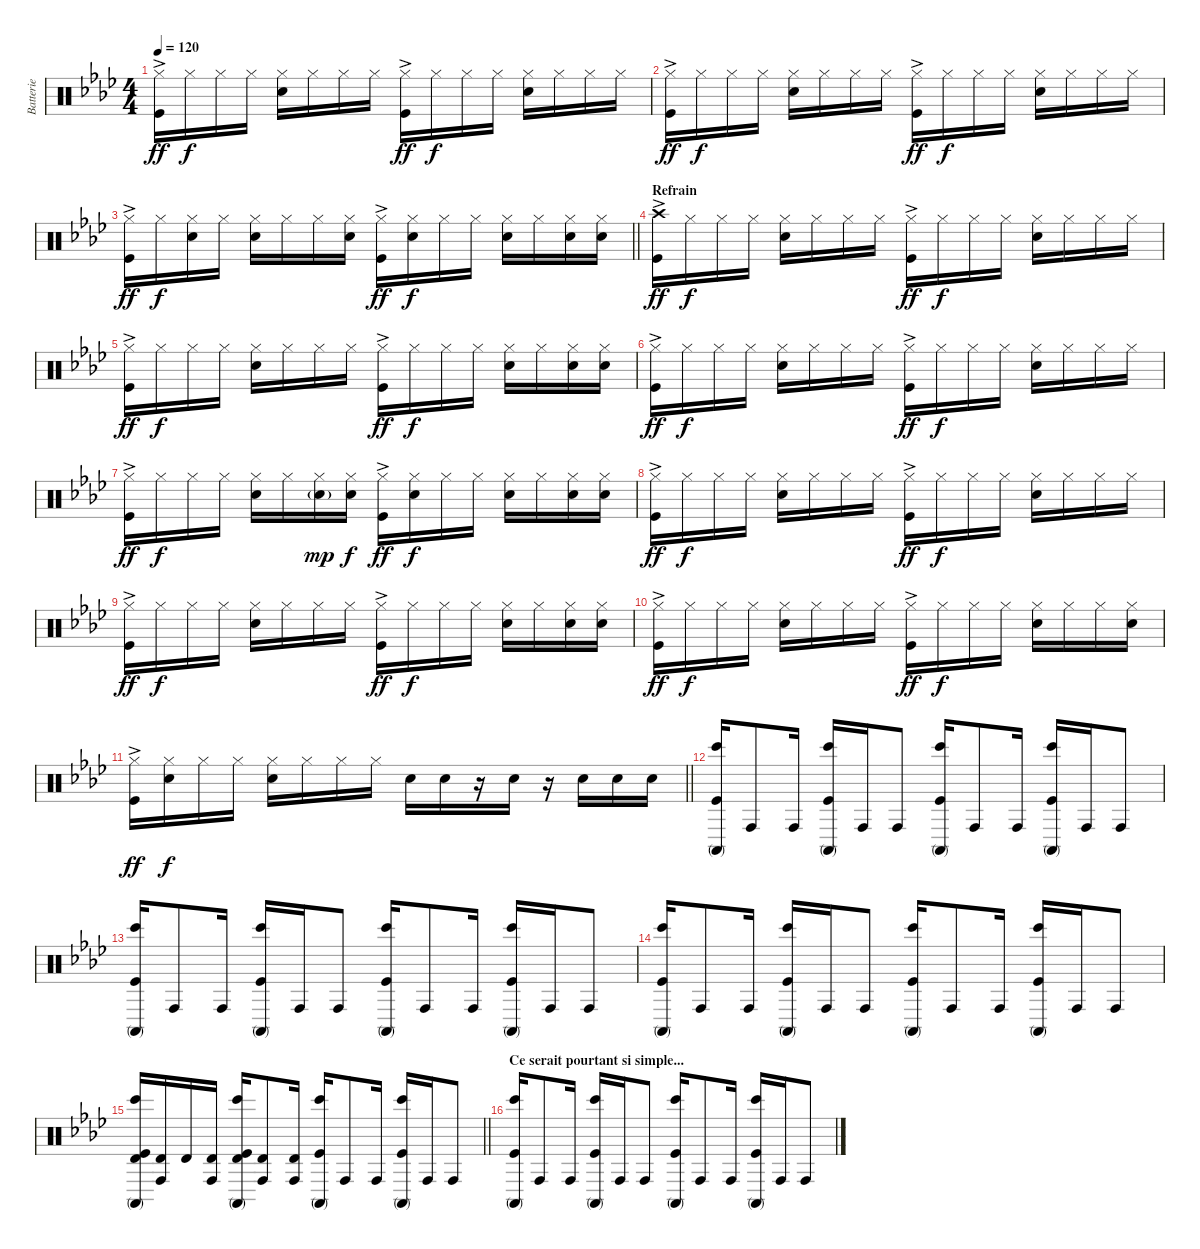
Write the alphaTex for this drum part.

\track ("Batterie" "Batterie") {instrument percussion}
\staff {score}
\articulation defaults
\ts (4 4)
\tempo 120
\clef neutral
\ks fminor
("Hi-Hat (closed)" "Kick (hit)"{ac}).16{dy ff} "Hi-Hat (closed)".16{dy f} "Hi-Hat (closed)".16 "Hi-Hat (closed)".16 ("Hi-Hat (closed)" "Snare (hit) 2").16 "Hi-Hat (closed)".16 "Hi-Hat (closed)".16 "Hi-Hat (closed)".16 ("Hi-Hat (closed)" "Kick (hit)"{ac}).16{dy ff} "Hi-Hat (closed)".16{dy f} "Hi-Hat (closed)".16 "Hi-Hat (closed)".16 ("Hi-Hat (closed)" "Snare (hit) 2").16 "Hi-Hat (closed)".16 "Hi-Hat (closed)".16 "Hi-Hat (closed)".16 |
("Hi-Hat (closed)" "Kick (hit)"{ac}).16{dy ff} "Hi-Hat (closed)".16{dy f} "Hi-Hat (closed)".16 "Hi-Hat (closed)".16 ("Hi-Hat (closed)" "Snare (hit) 2").16 "Hi-Hat (closed)".16 "Hi-Hat (closed)".16 "Hi-Hat (closed)".16 ("Hi-Hat (closed)" "Kick (hit)"{ac}).16{dy ff} "Hi-Hat (closed)".16{dy f} "Hi-Hat (closed)".16 "Hi-Hat (closed)".16 ("Hi-Hat (closed)" "Snare (hit) 2").16 "Hi-Hat (closed)".16 "Hi-Hat (closed)".16 "Hi-Hat (closed)".16 |
\barLineRight lightlight
("Hi-Hat (closed)" "Kick (hit)"{ac}).16{dy ff} "Hi-Hat (closed)".16{dy f} ("Hi-Hat (closed)" "Snare (hit) 2").16 "Hi-Hat (closed)".16 ("Hi-Hat (closed)" "Snare (hit) 2").16 "Hi-Hat (closed)".16 "Hi-Hat (closed)".16 ("Hi-Hat (closed)" "Snare (hit) 2").16 ("Hi-Hat (closed)" "Kick (hit)"{ac}).16{dy ff} ("Hi-Hat (closed)" "Snare (hit) 2").16{dy f} "Hi-Hat (closed)".16 "Hi-Hat (closed)".16 ("Hi-Hat (closed)" "Snare (hit) 2").16 "Hi-Hat (closed)".16 ("Hi-Hat (closed)" "Snare (hit) 2").16 ("Hi-Hat (closed)" "Snare (hit) 2").16 |
\section ("" "Refrain")
("Crash high (hit)" "Kick (hit)"{ac}).16{dy ff} "Hi-Hat (closed)".16{dy f} "Hi-Hat (closed)".16 "Hi-Hat (closed)".16 ("Hi-Hat (closed)" "Snare (hit) 2").16 "Hi-Hat (closed)".16 "Hi-Hat (closed)".16 "Hi-Hat (closed)".16 ("Hi-Hat (closed)" "Kick (hit)"{ac}).16{dy ff} "Hi-Hat (closed)".16{dy f} "Hi-Hat (closed)".16 "Hi-Hat (closed)".16 ("Hi-Hat (closed)" "Snare (hit) 2").16 "Hi-Hat (closed)".16 "Hi-Hat (closed)".16 "Hi-Hat (closed)".16 |
("Hi-Hat (closed)" "Kick (hit)"{ac}).16{dy ff} "Hi-Hat (closed)".16{dy f} "Hi-Hat (closed)".16 "Hi-Hat (closed)".16 ("Hi-Hat (closed)" "Snare (hit) 2").16 "Hi-Hat (closed)".16 "Hi-Hat (closed)".16 "Hi-Hat (closed)".16 ("Hi-Hat (closed)" "Kick (hit)"{ac}).16{dy ff} "Hi-Hat (closed)".16{dy f} "Hi-Hat (closed)".16 "Hi-Hat (closed)".16 ("Hi-Hat (closed)" "Snare (hit) 2").16 "Hi-Hat (closed)".16 ("Hi-Hat (closed)" "Snare (hit) 2").16 ("Hi-Hat (closed)" "Snare (hit) 2").16 |
("Hi-Hat (closed)" "Kick (hit)"{ac}).16{dy ff} "Hi-Hat (closed)".16{dy f} "Hi-Hat (closed)".16 "Hi-Hat (closed)".16 ("Hi-Hat (closed)" "Snare (hit) 2").16 "Hi-Hat (closed)".16 "Hi-Hat (closed)".16 "Hi-Hat (closed)".16 ("Hi-Hat (closed)" "Kick (hit)"{ac}).16{dy ff} "Hi-Hat (closed)".16{dy f} "Hi-Hat (closed)".16 "Hi-Hat (closed)".16 ("Hi-Hat (closed)" "Snare (hit) 2").16 "Hi-Hat (closed)".16 "Hi-Hat (closed)".16 "Hi-Hat (closed)".16 |
("Hi-Hat (closed)" "Kick (hit)"{ac}).16{dy ff} "Hi-Hat (closed)".16{dy f} "Hi-Hat (closed)".16 "Hi-Hat (closed)".16 ("Hi-Hat (closed)" "Snare (hit) 2").16 "Hi-Hat (closed)".16 ("Hi-Hat (closed)" "Snare (hit) 2"{g}).16{dy mp} ("Hi-Hat (closed)" "Snare (hit) 2").16{dy f} ("Hi-Hat (closed)" "Kick (hit)"{ac}).16{dy ff} ("Hi-Hat (closed)" "Snare (hit) 2").16{dy f} "Hi-Hat (closed)".16 "Hi-Hat (closed)".16 ("Hi-Hat (closed)" "Snare (hit) 2").16 "Hi-Hat (closed)".16 ("Hi-Hat (closed)" "Snare (hit) 2").16 ("Hi-Hat (closed)" "Snare (hit) 2").16 |
("Hi-Hat (closed)" "Kick (hit)"{ac}).16{dy ff} "Hi-Hat (closed)".16{dy f} "Hi-Hat (closed)".16 "Hi-Hat (closed)".16 ("Hi-Hat (closed)" "Snare (hit) 2").16 "Hi-Hat (closed)".16 "Hi-Hat (closed)".16 "Hi-Hat (closed)".16 ("Hi-Hat (closed)" "Kick (hit)"{ac}).16{dy ff} "Hi-Hat (closed)".16{dy f} "Hi-Hat (closed)".16 "Hi-Hat (closed)".16 ("Hi-Hat (closed)" "Snare (hit) 2").16 "Hi-Hat (closed)".16 "Hi-Hat (closed)".16 "Hi-Hat (closed)".16 |
("Hi-Hat (closed)" "Kick (hit)"{ac}).16{dy ff} "Hi-Hat (closed)".16{dy f} "Hi-Hat (closed)".16 "Hi-Hat (closed)".16 ("Hi-Hat (closed)" "Snare (hit) 2").16 "Hi-Hat (closed)".16 "Hi-Hat (closed)".16 "Hi-Hat (closed)".16 ("Hi-Hat (closed)" "Kick (hit)"{ac}).16{dy ff} "Hi-Hat (closed)".16{dy f} "Hi-Hat (closed)".16 "Hi-Hat (closed)".16 ("Hi-Hat (closed)" "Snare (hit) 2").16 "Hi-Hat (closed)".16 ("Hi-Hat (closed)" "Snare (hit) 2").16 ("Hi-Hat (closed)" "Snare (hit) 2").16 |
("Hi-Hat (closed)" "Kick (hit)"{ac}).16{dy ff} "Hi-Hat (closed)".16{dy f} "Hi-Hat (closed)".16 "Hi-Hat (closed)".16 ("Hi-Hat (closed)" "Snare (hit) 2").16 "Hi-Hat (closed)".16 "Hi-Hat (closed)".16 "Hi-Hat (closed)".16 ("Hi-Hat (closed)" "Kick (hit)"{ac}).16{dy ff} "Hi-Hat (closed)".16{dy f} "Hi-Hat (closed)".16 "Hi-Hat (closed)".16 ("Hi-Hat (closed)" "Snare (hit) 2").16 "Hi-Hat (closed)".16 "Hi-Hat (closed)".16 ("Hi-Hat (closed)" "Snare (hit) 2").16 |
\barLineRight lightlight
("Hi-Hat (closed)" "Kick (hit)"{ac}).16{dy ff} ("Hi-Hat (closed)" "Snare (hit) 2").16{dy f} "Hi-Hat (closed)".16 "Hi-Hat (closed)".16 ("Hi-Hat (closed)" "Snare (hit) 2").16 "Hi-Hat (closed)".16 "Hi-Hat (closed)".16 "Hi-Hat (closed)".16 "Snare (hit) 2".16 "Snare (hit) 2".16 r.16 "Snare (hit) 2".16 r.16 "Snare (hit) 2".16 "Snare (hit) 2".16 "Snare (hit) 2".16 |
("Bongo High (hit)" "Conga high (mute)" "Kick (hit)").16 "Conga high (hit)".8 "Conga high (hit)".16 ("Bongo High (hit)" "Conga high (mute)" "Kick (hit)").16 "Conga high (hit)".16 "Conga high (hit)".8 ("Bongo High (hit)" "Conga high (mute)" "Kick (hit)").16 "Conga high (hit)".8 "Conga high (hit)".16 ("Bongo High (hit)" "Conga high (mute)" "Kick (hit)").16 "Conga high (hit)".16 "Conga high (hit)".8 |
("Bongo High (hit)" "Conga high (mute)" "Kick (hit)").16 "Conga high (hit)".8 "Conga high (hit)".16 ("Bongo High (hit)" "Conga high (mute)" "Kick (hit)").16 "Conga high (hit)".16 "Conga high (hit)".8 ("Bongo High (hit)" "Conga high (mute)" "Kick (hit)").16 "Conga high (hit)".8 "Conga high (hit)".16 ("Bongo High (hit)" "Conga high (mute)" "Kick (hit)").16 "Conga high (hit)".16 "Conga high (hit)".8 |
("Bongo High (hit)" "Conga high (mute)" "Kick (hit)").16 "Conga high (hit)".8 "Conga high (hit)".16 ("Bongo High (hit)" "Conga high (mute)" "Kick (hit)").16 "Conga high (hit)".16 "Conga high (hit)".8 ("Bongo High (hit)" "Conga high (mute)" "Kick (hit)").16 "Conga high (hit)".8 "Conga high (hit)".16 ("Bongo High (hit)" "Conga high (mute)" "Kick (hit)").16 "Conga high (hit)".16 "Conga high (hit)".8 |
\barLineRight lightlight
("Bongo High (hit)" "Conga high (mute)" "Timbale high (hit)" "Kick (hit)").16 ("Conga high (hit)" "Timbale high (hit)").16 "Timbale high (hit)".16 ("Conga high (hit)" "Timbale high (hit)").16 ("Bongo High (hit)" "Conga high (mute)" "Timbale high (hit)" "Kick (hit)").16 ("Conga high (hit)" "Timbale high (hit)").8 ("Conga high (hit)" "Timbale high (hit)").16 ("Bongo High (hit)" "Conga high (mute)" "Kick (hit)").16 "Conga high (hit)".8 "Conga high (hit)".16 ("Bongo High (hit)" "Conga high (mute)" "Kick (hit)").16 "Conga high (hit)".16 "Conga high (hit)".8 |
\section ("" "Ce serait pourtant si simple...")
("Bongo High (hit)" "Conga high (mute)" "Kick (hit)").16 "Conga high (hit)".8 "Conga high (hit)".16 ("Bongo High (hit)" "Conga high (mute)" "Kick (hit)").16 "Conga high (hit)".16 "Conga high (hit)".8 ("Bongo High (hit)" "Conga high (mute)" "Kick (hit)").16 "Conga high (hit)".8 "Conga high (hit)".16 ("Bongo High (hit)" "Conga high (mute)" "Kick (hit)").16 "Conga high (hit)".16 "Conga high (hit)".8
